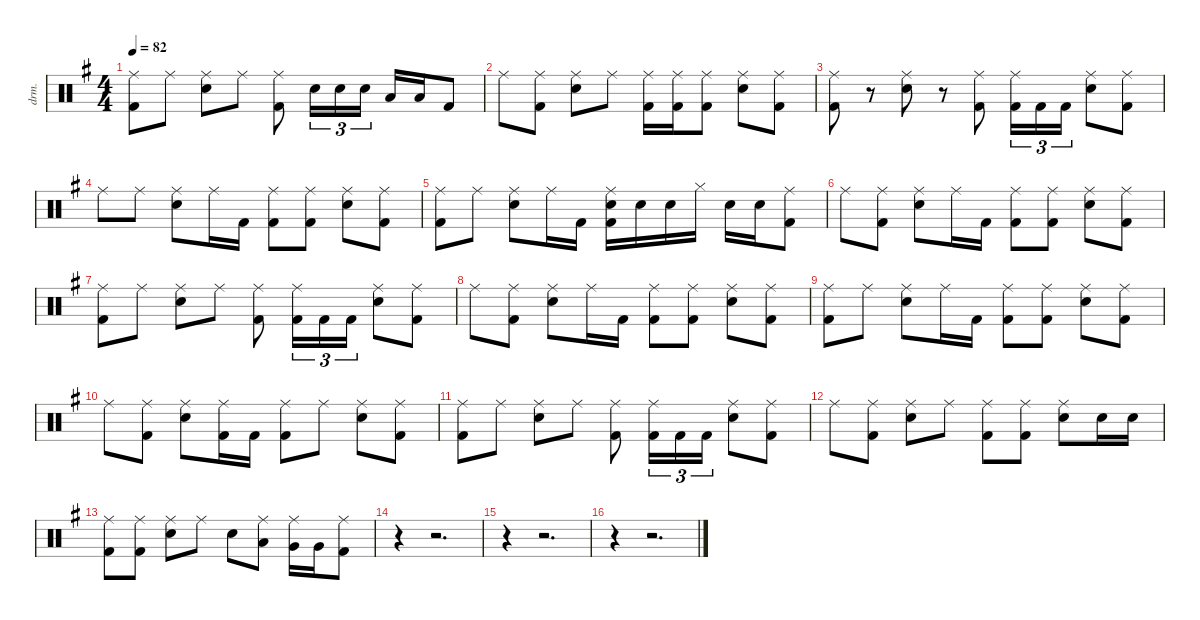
\defaultSystemsLayout 4
\hideDynamics
\bracketExtendMode nobrackets
\track ("Drums" "drm.") {instrument percussion}
\staff {score}
\articulation defaults
\ts (4 4)
\tempo 82
\clef neutral
\ks eminor
("Ride (middle)"{acc forcenatural} "Kick (hit) 2"{acc forcenatural}).8{dy f} "Ride (middle)"{acc forcenatural}.8 ("Ride (middle)"{acc forcenatural} "Snare (hit) 2"{acc forcenatural}).8 "Ride (middle)"{acc forcenatural}.8 ("Ride (middle)"{acc forcenatural} "Kick (hit) 2"{acc forcenatural}).8 "Snare (hit) 2"{acc forcenatural}.16{tu (3 2)} "Snare (hit) 2"{acc forcenatural}.16{tu (3 2)} "Snare (hit) 2"{acc forcenatural}.16{tu (3 2)} "Low Tom (hit)"{acc forcenatural}.16 "Low Tom (hit)"{acc forcenatural}.16 "Kick (hit) 2"{acc forcenatural}.8 |
"Ride (middle)"{acc forcenatural}.8 ("Ride (middle)"{acc forcenatural} "Kick (hit) 2"{acc forcenatural}).8 ("Ride (middle)"{acc forcenatural} "Snare (hit) 2"{acc forcenatural}).8 "Ride (middle)"{acc forcenatural}.8 ("Ride (middle)"{acc forcenatural} "Kick (hit) 2"{acc forcenatural}).16 ("Ride (middle)"{acc forcenatural} "Kick (hit) 2"{acc forcenatural}).16 ("Ride (middle)"{acc forcenatural} "Kick (hit) 2"{acc forcenatural}).8 ("Ride (middle)"{acc forcenatural} "Snare (hit) 2"{acc forcenatural}).8 ("Ride (middle)"{acc forcenatural} "Kick (hit) 2"{acc forcenatural}).8 |
("Ride (middle)"{acc forcenatural} "Kick (hit) 2"{acc forcenatural}).8 r.8 ("Ride (middle)"{acc forcenatural} "Snare (hit) 2"{acc forcenatural}).8 r.8 ("Ride (middle)"{acc forcenatural} "Kick (hit) 2"{acc forcenatural}).8 ("Ride (middle)"{acc forcenatural} "Kick (hit) 2"{acc forcenatural}).16{tu (3 2)} "Kick (hit) 2"{acc forcenatural}.16{tu (3 2)} "Kick (hit) 2"{acc forcenatural}.16{tu (3 2)} ("Ride (middle)"{acc forcenatural} "Snare (hit) 2"{acc forcenatural}).8 ("Ride (middle)"{acc forcenatural} "Kick (hit) 2"{acc forcenatural}).8 |
"Ride (middle)"{acc forcenatural}.8 "Ride (middle)"{acc forcenatural}.8 ("Ride (middle)"{acc forcenatural} "Snare (hit) 2"{acc forcenatural}).8 "Ride (middle)"{acc forcenatural}.16 "Kick (hit) 2"{acc forcenatural}.16 ("Ride (middle)"{acc forcenatural} "Kick (hit) 2"{acc forcenatural}).8 ("Ride (middle)"{acc forcenatural} "Kick (hit) 2"{acc forcenatural}).8 ("Ride (middle)"{acc forcenatural} "Snare (hit) 2"{acc forcenatural}).8 ("Ride (middle)"{acc forcenatural} "Kick (hit) 2"{acc forcenatural}).8 |
("Ride (middle)"{acc forcenatural} "Kick (hit) 2"{acc forcenatural}).8 "Ride (middle)"{acc forcenatural}.8 ("Ride (middle)"{acc forcenatural} "Snare (hit) 2"{acc forcenatural}).8 "Ride (middle)"{acc forcenatural}.16 "Kick (hit) 2"{acc forcenatural}.16 ("Ride (middle)"{acc forcenatural} "Snare (hit) 2"{acc forcenatural} "Kick (hit) 2"{acc forcenatural}).16 "Snare (hit) 2"{acc forcenatural}.16 "Snare (hit) 2"{acc forcenatural}.16 "Hi-Hat (closed)"{acc forcenatural}.16 "Snare (hit) 2"{acc forcenatural}.16 "Snare (hit) 2"{acc forcenatural}.16 ("Ride (middle)"{acc forcenatural} "Kick (hit) 2"{acc forcenatural}).8 |
"Ride (middle)"{acc forcenatural}.8 ("Ride (middle)"{acc forcenatural} "Kick (hit) 2"{acc forcenatural}).8 ("Ride (middle)"{acc forcenatural} "Snare (hit) 2"{acc forcenatural}).8 "Ride (middle)"{acc forcenatural}.16 "Kick (hit) 2"{acc forcenatural}.16 ("Ride (middle)"{acc forcenatural} "Kick (hit) 2"{acc forcenatural}).8 ("Ride (middle)"{acc forcenatural} "Kick (hit) 2"{acc forcenatural}).8 ("Ride (middle)"{acc forcenatural} "Snare (hit) 2"{acc forcenatural}).8 ("Ride (middle)"{acc forcenatural} "Kick (hit) 2"{acc forcenatural}).8 |
("Ride (middle)"{acc forcenatural} "Kick (hit) 2"{acc forcenatural}).8 "Ride (middle)"{acc forcenatural}.8 ("Ride (middle)"{acc forcenatural} "Snare (hit) 2"{acc forcenatural}).8 "Ride (middle)"{acc forcenatural}.8 ("Ride (middle)"{acc forcenatural} "Kick (hit) 2"{acc forcenatural}).8 ("Ride (middle)"{acc forcenatural} "Kick (hit) 2"{acc forcenatural}).16{tu (3 2)} "Kick (hit) 2"{acc forcenatural}.16{tu (3 2)} "Kick (hit) 2"{acc forcenatural}.16{tu (3 2)} ("Ride (middle)"{acc forcenatural} "Snare (hit) 2"{acc forcenatural}).8 ("Ride (middle)"{acc forcenatural} "Kick (hit) 2"{acc forcenatural}).8 |
"Ride (middle)"{acc forcenatural}.8 ("Ride (middle)"{acc forcenatural} "Kick (hit) 2"{acc forcenatural}).8 ("Ride (middle)"{acc forcenatural} "Snare (hit) 2"{acc forcenatural}).8 "Ride (middle)"{acc forcenatural}.16 "Kick (hit) 2"{acc forcenatural}.16 ("Ride (middle)"{acc forcenatural} "Kick (hit) 2"{acc forcenatural}).8 ("Ride (middle)"{acc forcenatural} "Kick (hit) 2"{acc forcenatural}).8 ("Ride (middle)"{acc forcenatural} "Snare (hit) 2"{acc forcenatural}).8 ("Ride (middle)"{acc forcenatural} "Kick (hit) 2"{acc forcenatural}).8 |
("Ride (middle)"{acc forcenatural} "Kick (hit) 2"{acc forcenatural}).8 "Ride (middle)"{acc forcenatural}.8 ("Ride (middle)"{acc forcenatural} "Snare (hit) 2"{acc forcenatural}).8 "Ride (middle)"{acc forcenatural}.16 "Kick (hit) 2"{acc forcenatural}.16 ("Ride (middle)"{acc forcenatural} "Kick (hit) 2"{acc forcenatural}).8 ("Ride (middle)"{acc forcenatural} "Kick (hit) 2"{acc forcenatural}).8 ("Ride (middle)"{acc forcenatural} "Snare (hit) 2"{acc forcenatural}).8 ("Ride (middle)"{acc forcenatural} "Kick (hit) 2"{acc forcenatural}).8 |
"Ride (middle)"{acc forcenatural}.8 ("Ride (middle)"{acc forcenatural} "Kick (hit) 2"{acc forcenatural}).8 ("Ride (middle)"{acc forcenatural} "Snare (hit) 2"{acc forcenatural}).8 ("Ride (middle)"{acc forcenatural} "Kick (hit) 2"{acc forcenatural}).16 "Kick (hit) 2"{acc forcenatural}.16 ("Ride (middle)"{acc forcenatural} "Kick (hit) 2"{acc forcenatural}).8 "Ride (middle)"{acc forcenatural}.8 ("Ride (middle)"{acc forcenatural} "Snare (hit) 2"{acc forcenatural}).8 ("Ride (middle)"{acc forcenatural} "Kick (hit) 2"{acc forcenatural}).8 |
("Ride (middle)"{acc forcenatural} "Kick (hit) 2"{acc forcenatural}).8 "Ride (middle)"{acc forcenatural}.8 ("Ride (middle)"{acc forcenatural} "Snare (hit) 2"{acc forcenatural}).8 "Ride (middle)"{acc forcenatural}.8 ("Ride (middle)"{acc forcenatural} "Kick (hit) 2"{acc forcenatural}).8 ("Ride (middle)"{acc forcenatural} "Kick (hit) 2"{acc forcenatural}).16{tu (3 2)} "Kick (hit) 2"{acc forcenatural}.16{tu (3 2)} "Kick (hit) 2"{acc forcenatural}.16{tu (3 2)} ("Ride (middle)"{acc forcenatural} "Snare (hit) 2"{acc forcenatural}).8 ("Ride (middle)"{acc forcenatural} "Kick (hit) 2"{acc forcenatural}).8 |
"Ride (middle)"{acc forcenatural}.8 ("Ride (middle)"{acc forcenatural} "Kick (hit) 2"{acc forcenatural}).8 ("Ride (middle)"{acc forcenatural} "Snare (hit) 2"{acc forcenatural}).8 "Ride (middle)"{acc forcenatural}.8 ("Ride (middle)"{acc forcenatural} "Kick (hit) 2"{acc forcenatural}).8 ("Ride (middle)"{acc forcenatural} "Kick (hit) 2"{acc forcenatural}).8 ("Ride (middle)"{acc forcenatural} "Snare (hit) 2"{acc forcenatural}).8 "Snare (hit) 2"{acc forcenatural}.16 "Snare (hit) 2"{acc forcenatural}.16 |
("Ride (middle)"{acc forcenatural} "Kick (hit) 2"{acc forcenatural}).8 ("Ride (middle)"{acc forcenatural} "Kick (hit) 2"{acc forcenatural}).8 ("Ride (middle)"{acc forcenatural} "Snare (hit) 2"{acc forcenatural}).8 "Ride (middle)"{acc forcenatural}.8 "Snare (hit) 2"{acc forcenatural}.8 ("Ride (middle)"{acc forcenatural} "Low Tom (hit)"{acc forcenatural}).8 ("Ride (middle)"{acc forcenatural} "Very Low Tom (hit)"{acc forcenatural}).16 "Very Low Tom (hit)"{acc forcenatural}.16 ("Ride (middle)"{acc forcenatural} "Kick (hit) 2"{acc forcenatural}).8 |
r.4 r.2{d} |
r.4 r.2{d} |
r.4 r.2{d}
